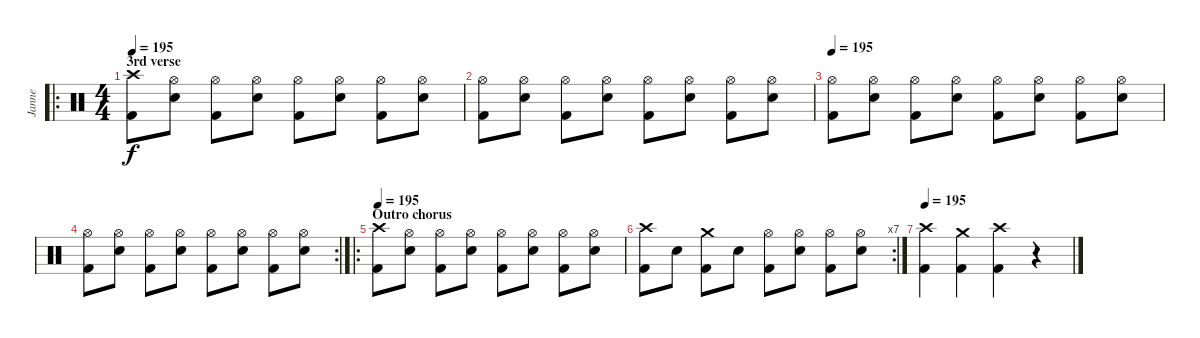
\track ("Janne" "Janne") {instrument percussion}
\staff {score}
\articulation defaults
\ro
\ts (4 4)
\section ("" "3rd verse")
\tempo 195
\clef neutral
\ks c
("Crash high (hit)" "Kick (hit) 2").8{dy f} ("Hi-Hat (open)" "Electric Snare (hit)").8 ("Hi-Hat (open)" "Kick (hit) 2").8 ("Hi-Hat (open)" "Electric Snare (hit)").8 ("Hi-Hat (open)" "Kick (hit) 2").8 ("Hi-Hat (open)" "Electric Snare (hit)").8 ("Hi-Hat (open)" "Kick (hit) 2").8 ("Hi-Hat (open)" "Electric Snare (hit)").8 |
("Hi-Hat (open)" "Kick (hit) 2").8 ("Hi-Hat (open)" "Electric Snare (hit)").8 ("Hi-Hat (open)" "Kick (hit) 2").8 ("Hi-Hat (open)" "Electric Snare (hit)").8 ("Hi-Hat (open)" "Kick (hit) 2").8 ("Hi-Hat (open)" "Electric Snare (hit)").8 ("Hi-Hat (open)" "Kick (hit) 2").8 ("Hi-Hat (open)" "Electric Snare (hit)").8 |
\tempo 195
("Hi-Hat (open)" "Kick (hit) 2").8 ("Hi-Hat (open)" "Electric Snare (hit)").8 ("Hi-Hat (open)" "Kick (hit) 2").8 ("Hi-Hat (open)" "Electric Snare (hit)").8 ("Hi-Hat (open)" "Kick (hit) 2").8 ("Hi-Hat (open)" "Electric Snare (hit)").8 ("Hi-Hat (open)" "Kick (hit) 2").8 ("Hi-Hat (open)" "Electric Snare (hit)").8 |
\rc 2
("Hi-Hat (open)" "Kick (hit) 2").8 ("Hi-Hat (open)" "Electric Snare (hit)").8 ("Hi-Hat (open)" "Kick (hit) 2").8 ("Hi-Hat (open)" "Electric Snare (hit)").8 ("Hi-Hat (open)" "Kick (hit) 2").8 ("Hi-Hat (open)" "Electric Snare (hit)").8 ("Hi-Hat (open)" "Kick (hit) 2").8 ("Hi-Hat (open)" "Electric Snare (hit)").8 |
\ro
\section ("" "Outro chorus")
\tempo 195
("Crash high (hit)" "Kick (hit) 2").8 ("Hi-Hat (open)" "Electric Snare (hit)").8 ("Hi-Hat (open)" "Kick (hit) 2").8 ("Hi-Hat (open)" "Electric Snare (hit)").8 ("Hi-Hat (open)" "Kick (hit) 2").8 ("Hi-Hat (open)" "Electric Snare (hit)").8 ("Hi-Hat (open)" "Kick (hit) 2").8 ("Hi-Hat (open)" "Electric Snare (hit)").8 |
\rc 7
("Crash high (hit)" "Kick (hit) 2").8 "Electric Snare (hit)".8 ("Crash medium (hit)" "Kick (hit) 2").8 "Electric Snare (hit)".8 ("Hi-Hat (open)" "Kick (hit) 2").8 ("Hi-Hat (open)" "Electric Snare (hit)").8 ("Hi-Hat (open)" "Kick (hit) 2").8 ("Hi-Hat (open)" "Electric Snare (hit)").8 |
\tempo 195
("Crash high (hit)" "Kick (hit) 2").4 ("Crash medium (hit)" "Kick (hit) 2").4 ("Crash high (hit)" "Kick (hit) 2").4 r.4
